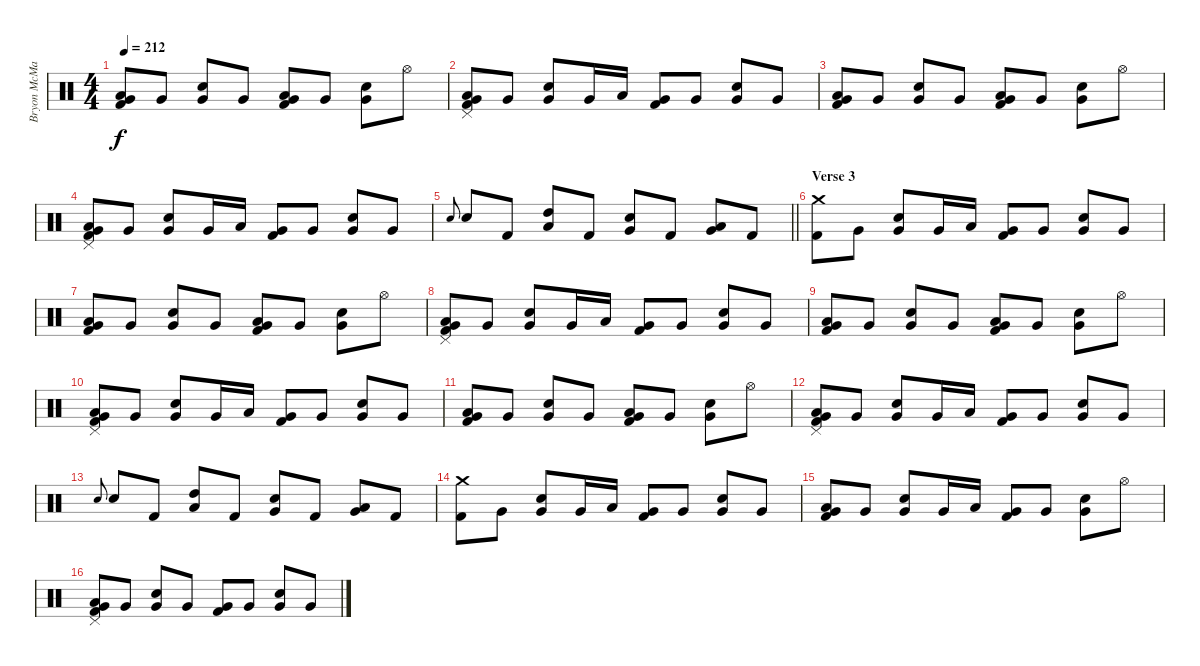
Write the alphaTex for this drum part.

\track ("Bryon McMackin - Drums" "Bryon McMa") {instrument percussion}
\staff {score}
\articulation defaults
\ts (4 4)
\tempo 212
\clef neutral
\ks c
("Low Tom (hit)" "Very Low Tom (hit)" "Kick (hit) 2").8{dy f} "Very Low Tom (hit)".8 ("Electric Snare (hit)" "Very Low Tom (hit)").8 "Very Low Tom (hit)".8 ("Low Tom (hit)" "Very Low Tom (hit)" "Kick (hit) 2").8 "Very Low Tom (hit)".8 ("Electric Snare (hit)" "Very Low Tom (hit)").8 "Hi-Hat (open)".8 |
("Low Tom (hit)" "Pedal Hi-Hat (hit)" "Very Low Tom (hit)" "Kick (hit) 2").8 "Very Low Tom (hit)".8 ("Electric Snare (hit)" "Very Low Tom (hit)").8 "Very Low Tom (hit)".16 "Low Tom (hit)".16 ("Very Low Tom (hit)" "Kick (hit) 2").8 "Very Low Tom (hit)".8 ("Electric Snare (hit)" "Very Low Tom (hit)").8 "Very Low Tom (hit)".8 |
("Low Tom (hit)" "Very Low Tom (hit)" "Kick (hit) 2").8 "Very Low Tom (hit)".8 ("Electric Snare (hit)" "Very Low Tom (hit)").8 "Very Low Tom (hit)".8 ("Low Tom (hit)" "Very Low Tom (hit)" "Kick (hit) 2").8 "Very Low Tom (hit)".8 ("Electric Snare (hit)" "Very Low Tom (hit)").8 "Hi-Hat (open)".8 |
("Low Tom (hit)" "Pedal Hi-Hat (hit)" "Very Low Tom (hit)" "Kick (hit) 2").8 "Very Low Tom (hit)".8 ("Electric Snare (hit)" "Very Low Tom (hit)").8 "Very Low Tom (hit)".16 "Low Tom (hit)".16 ("Very Low Tom (hit)" "Kick (hit) 2").8 "Very Low Tom (hit)".8 ("Electric Snare (hit)" "Very Low Tom (hit)").8 "Very Low Tom (hit)".8 |
\barLineRight lightlight "Electric Snare (hit)".8{gr onbeat} "Electric Snare (hit)".8 "Kick (hit) 2".8
("High Tom (hit)" "Low Tom (hit)").8 "Kick (hit) 2".8 ("Electric Snare (hit)" "Very Low Tom (hit)").8 "Kick (hit) 2".8 ("Low Tom (hit)" "Very Low Tom (hit)").8 "Kick (hit) 2".8 |
\section ("" "Verse 3")
("Crash medium (hit)" "Kick (hit) 2").8 "Very Low Tom (hit)".8 ("Electric Snare (hit)" "Very Low Tom (hit)").8 "Very Low Tom (hit)".16 "Low Tom (hit)".16 ("Very Low Tom (hit)" "Kick (hit) 2").8 "Very Low Tom (hit)".8 ("Electric Snare (hit)" "Very Low Tom (hit)").8 "Very Low Tom (hit)".8 |
("Low Tom (hit)" "Very Low Tom (hit)" "Kick (hit) 2").8 "Very Low Tom (hit)".8 ("Electric Snare (hit)" "Very Low Tom (hit)").8 "Very Low Tom (hit)".8 ("Low Tom (hit)" "Very Low Tom (hit)" "Kick (hit) 2").8 "Very Low Tom (hit)".8 ("Electric Snare (hit)" "Very Low Tom (hit)").8 "Hi-Hat (open)".8 |
("Low Tom (hit)" "Pedal Hi-Hat (hit)" "Very Low Tom (hit)" "Kick (hit) 2").8 "Very Low Tom (hit)".8 ("Electric Snare (hit)" "Very Low Tom (hit)").8 "Very Low Tom (hit)".16 "Low Tom (hit)".16 ("Very Low Tom (hit)" "Kick (hit) 2").8 "Very Low Tom (hit)".8 ("Electric Snare (hit)" "Very Low Tom (hit)").8 "Very Low Tom (hit)".8 |
("Low Tom (hit)" "Very Low Tom (hit)" "Kick (hit) 2").8 "Very Low Tom (hit)".8 ("Electric Snare (hit)" "Very Low Tom (hit)").8 "Very Low Tom (hit)".8 ("Low Tom (hit)" "Very Low Tom (hit)" "Kick (hit) 2").8 "Very Low Tom (hit)".8 ("Electric Snare (hit)" "Very Low Tom (hit)").8 "Hi-Hat (open)".8 |
("Low Tom (hit)" "Pedal Hi-Hat (hit)" "Very Low Tom (hit)" "Kick (hit) 2").8 "Very Low Tom (hit)".8 ("Electric Snare (hit)" "Very Low Tom (hit)").8 "Very Low Tom (hit)".16 "Low Tom (hit)".16 ("Very Low Tom (hit)" "Kick (hit) 2").8 "Very Low Tom (hit)".8 ("Electric Snare (hit)" "Very Low Tom (hit)").8 "Very Low Tom (hit)".8 |
("Low Tom (hit)" "Very Low Tom (hit)" "Kick (hit) 2").8 "Very Low Tom (hit)".8 ("Electric Snare (hit)" "Very Low Tom (hit)").8 "Very Low Tom (hit)".8 ("Low Tom (hit)" "Very Low Tom (hit)" "Kick (hit) 2").8 "Very Low Tom (hit)".8 ("Electric Snare (hit)" "Very Low Tom (hit)").8 "Hi-Hat (open)".8 |
("Low Tom (hit)" "Pedal Hi-Hat (hit)" "Very Low Tom (hit)" "Kick (hit) 2").8 "Very Low Tom (hit)".8 ("Electric Snare (hit)" "Very Low Tom (hit)").8 "Very Low Tom (hit)".16 "Low Tom (hit)".16 ("Very Low Tom (hit)" "Kick (hit) 2").8 "Very Low Tom (hit)".8 ("Electric Snare (hit)" "Very Low Tom (hit)").8 "Very Low Tom (hit)".8 |
"Electric Snare (hit)".8{gr onbeat} "Electric Snare (hit)".8 "Kick (hit) 2".8 ("High Tom (hit)" "Low Tom (hit)").8 "Kick (hit) 2".8 ("Electric Snare (hit)" "Very Low Tom (hit)").8 "Kick (hit) 2".8 ("Low Tom (hit)" "Very Low Tom (hit)").8 "Kick (hit) 2".8 |
("Crash medium (hit)" "Kick (hit) 2").8 "Very Low Tom (hit)".8 ("Electric Snare (hit)" "Very Low Tom (hit)").8 "Very Low Tom (hit)".16 "Low Tom (hit)".16 ("Very Low Tom (hit)" "Kick (hit) 2").8 "Very Low Tom (hit)".8 ("Electric Snare (hit)" "Very Low Tom (hit)").8 "Very Low Tom (hit)".8 |
("Low Tom (hit)" "Very Low Tom (hit)" "Kick (hit) 2").8 "Very Low Tom (hit)".8 ("Electric Snare (hit)" "Very Low Tom (hit)").8 "Very Low Tom (hit)".16 "Low Tom (hit)".16 ("Very Low Tom (hit)" "Kick (hit) 2").8 "Very Low Tom (hit)".8 ("Electric Snare (hit)" "Very Low Tom (hit)").8 "Hi-Hat (open)".8 |
("Low Tom (hit)" "Pedal Hi-Hat (hit)" "Very Low Tom (hit)" "Kick (hit) 2").8 "Very Low Tom (hit)".8 ("Electric Snare (hit)" "Very Low Tom (hit)").8 "Very Low Tom (hit)".8 ("Very Low Tom (hit)" "Kick (hit) 2").8 "Very Low Tom (hit)".8 ("Electric Snare (hit)" "Very Low Tom (hit)").8 "Very Low Tom (hit)".8
